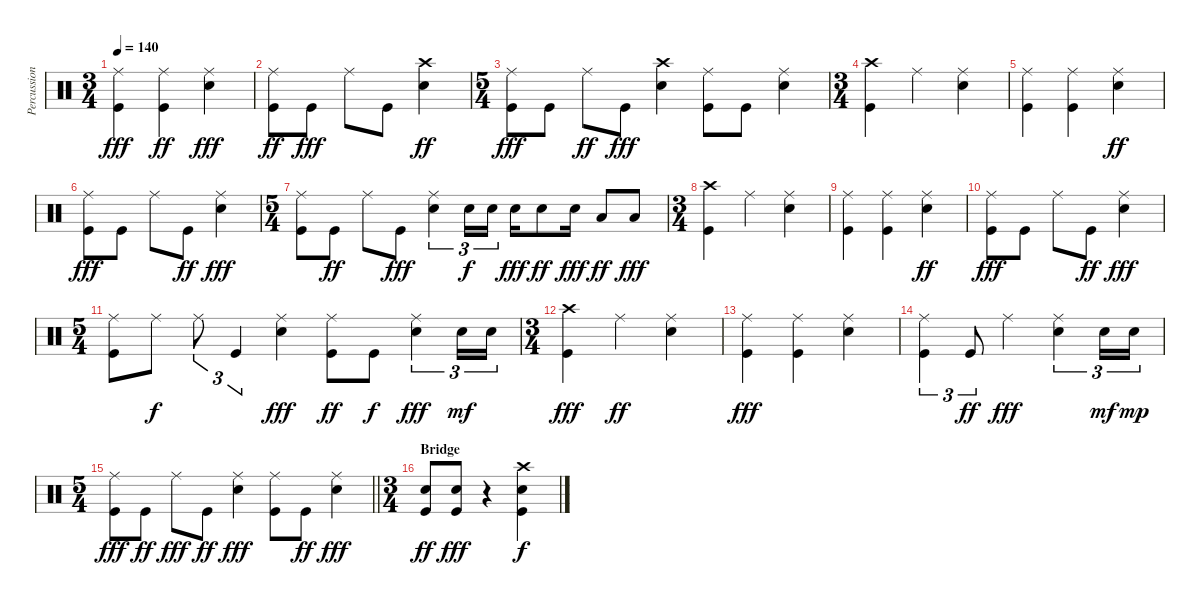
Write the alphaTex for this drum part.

\track ("Percussion" "Percussion") {instrument percussion}
\staff {score}
\articulation defaults
\ts (3 4)
\tempo 140
\clef neutral
\ks c
("Kick (hit)" "Ride (middle)").4{dy fff} ("Kick (hit)" "Ride (middle)").4{dy ff} ("Electric Snare (hit)" "Ride (middle)").4{dy fff} |
("Kick (hit)" "Ride (middle)").8{dy ff} "Kick (hit)".8{dy fff} "Ride (middle)".8 "Kick (hit)".8 ("Crash high (hit)" "Electric Snare (hit)").4{dy ff} |
\ts (5 4)
("Kick (hit)" "Ride (middle)").8{dy fff} "Kick (hit)".8 "Ride (middle)".8{dy ff} "Kick (hit)".8{dy fff} ("Electric Snare (hit)" "Crash high (hit)").4 ("Kick (hit)" "Ride (middle)").8 "Kick (hit)".8 ("Electric Snare (hit)" "Ride (middle)").4 |
\ts (3 4)
("Kick (hit)" "Crash high (hit)").4 "Ride (middle)".4 ("Electric Snare (hit)" "Ride (middle)").4 |
("Kick (hit)" "Ride (middle)").4 ("Ride (middle)" "Kick (hit)").4 ("Ride (middle)" "Electric Snare (hit)").4{dy ff} |
("Ride (middle)" "Kick (hit)").8{dy fff} "Kick (hit)".8 "Ride (middle)".8 "Kick (hit)".8{dy ff} ("Electric Snare (hit)" "Ride (middle)").4{dy fff} |
\ts (5 4)
("Ride (middle)" "Kick (hit)").8 "Kick (hit)".8{dy ff} "Ride (middle)".8 "Kick (hit)".8{dy fff} ("Electric Snare (hit)" "Ride (middle)").4{tu (3 2)} "Electric Snare (hit)".16{tu (3 2) dy f} "Electric Snare (hit)".16{tu (3 2)} "Electric Snare (hit)".16{dy fff} "Electric Snare (hit)".8{dy ff} "Electric Snare (hit)".16{dy fff} "Low Tom (hit)".8{dy ff} "Low Tom (hit)".8{dy fff} |
\ts (3 4)
("Kick (hit)" "Crash high (hit)").4 "Ride (middle)".4 ("Electric Snare (hit)" "Ride (middle)").4 |
("Kick (hit)" "Ride (middle)").4 ("Ride (middle)" "Kick (hit)").4 ("Ride (middle)" "Electric Snare (hit)").4{dy ff} |
("Ride (middle)" "Kick (hit)").8{dy fff} "Kick (hit)".8 "Ride (middle)".8 "Kick (hit)".8{dy ff} ("Electric Snare (hit)" "Ride (middle)").4{dy fff} |
\ts (5 4)
("Ride (middle)" "Kick (hit)").8 "Ride (middle)".8{dy f} "Ride (middle)".8{tu (3 2)} "Kick (hit)".4{tu (3 2)} ("Ride (middle)" "Electric Snare (hit)").4{dy fff} ("Ride (middle)" "Kick (hit)").8{dy ff} "Kick (hit)".8{dy f} ("Ride (middle)" "Electric Snare (hit)").4{tu (3 2) dy fff} "Electric Snare (hit)".16{tu (3 2) dy mf} "Electric Snare (hit)".16{tu (3 2)} |
\ts (3 4)
("Crash high (hit)" "Kick (hit)").4{dy fff} "Ride (middle)".4{dy ff} ("Ride (middle)" "Electric Snare (hit)").4 |
("Kick (hit)" "Ride (middle)").4{dy fff} ("Kick (hit)" "Ride (middle)").4 ("Electric Snare (hit)" "Ride (middle)").4 |
("Kick (hit)" "Ride (middle)").4{tu (3 2)} "Kick (hit)".8{tu (3 2) dy ff} "Ride (middle)".4{dy fff} ("Electric Snare (hit)" "Ride (middle)").4{tu (3 2)} "Electric Snare (hit)".16{tu (3 2) dy mf} "Electric Snare (hit)".16{tu (3 2) dy mp} |
\ts (5 4)
\barLineRight lightlight
("Ride (middle)" "Kick (hit)").8{dy fff} "Kick (hit)".8{dy ff} "Ride (middle)".8{dy fff} "Kick (hit)".8{dy ff} ("Electric Snare (hit)" "Ride (middle)").4{dy fff} ("Kick (hit)" "Ride (middle)").8 "Kick (hit)".8{dy ff} ("Ride (middle)" "Electric Snare (hit)").4{dy fff} |
\ts (3 4)
\section ("" "Bridge")
("Kick (hit)" "Electric Snare (hit)").8{dy ff} ("Kick (hit)" "Electric Snare (hit)").8{dy fff} r.4 ("Crash high (hit)" "Kick (hit)" "Electric Snare (hit)").4{dy f}
